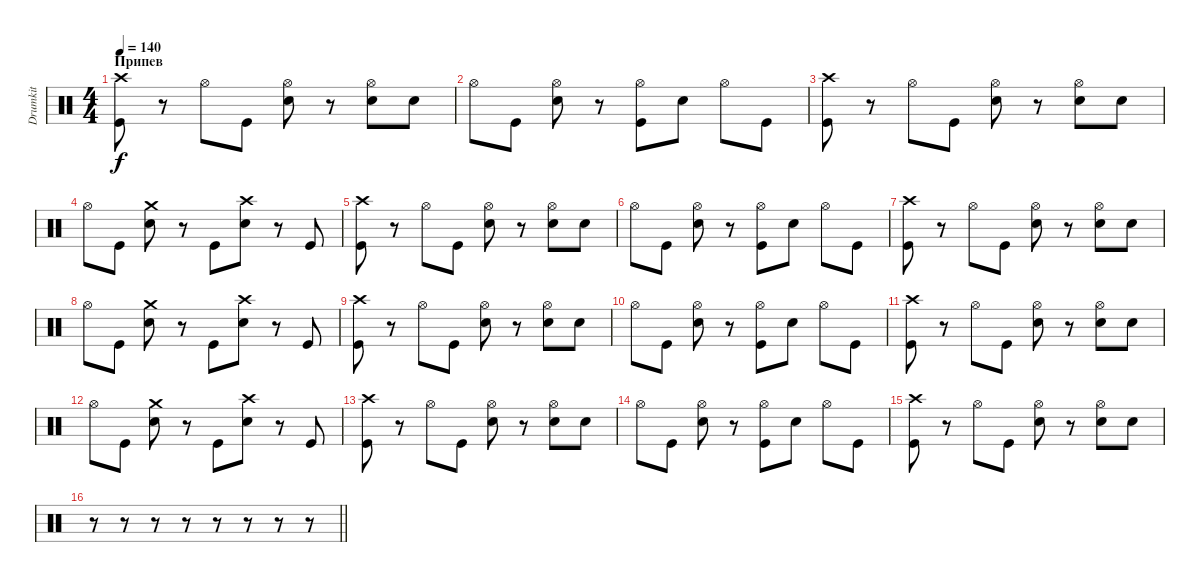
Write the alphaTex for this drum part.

\track ("Drumkit" "Drumkit") {instrument percussion}
\staff {score}
\articulation defaults
\ts (4 4)
\section ("" "Припев")
\tempo 140
\clef neutral
\ks c
("Kick (hit)" "Crash high (hit)").8{dy f} r.8 "Hi-Hat (open)".8 "Kick (hit)".8 ("Snare (hit) 2" "Hi-Hat (open)").8 r.8 ("Snare (hit) 2" "Hi-Hat (open)").8 "Snare (hit) 2".8 |
"Hi-Hat (open)".8 "Kick (hit)".8 ("Hi-Hat (open)" "Snare (hit) 2").8 r.8 ("Hi-Hat (open)" "Kick (hit)").8 "Snare (hit) 2".8 "Hi-Hat (open)".8 "Kick (hit)".8 |
("Kick (hit)" "Crash high (hit)").8 r.8 "Hi-Hat (open)".8 "Kick (hit)".8 ("Snare (hit) 2" "Hi-Hat (open)").8 r.8 ("Snare (hit) 2" "Hi-Hat (open)").8 "Snare (hit) 2".8 |
"Hi-Hat (open)".8 "Kick (hit)".8 ("Crash medium (hit)" "Snare (hit) 2").8 r.8 "Kick (hit)".8 ("Crash high (hit)" "Snare (hit) 2").8 r.8 "Kick (hit)".8 |
("Kick (hit)" "Crash high (hit)").8 r.8 "Hi-Hat (open)".8 "Kick (hit)".8 ("Snare (hit) 2" "Hi-Hat (open)").8 r.8 ("Snare (hit) 2" "Hi-Hat (open)").8 "Snare (hit) 2".8 |
"Hi-Hat (open)".8 "Kick (hit)".8 ("Hi-Hat (open)" "Snare (hit) 2").8 r.8 ("Hi-Hat (open)" "Kick (hit)").8 "Snare (hit) 2".8 "Hi-Hat (open)".8 "Kick (hit)".8 |
("Kick (hit)" "Crash high (hit)").8 r.8 "Hi-Hat (open)".8 "Kick (hit)".8 ("Snare (hit) 2" "Hi-Hat (open)").8 r.8 ("Snare (hit) 2" "Hi-Hat (open)").8 "Snare (hit) 2".8 |
"Hi-Hat (open)".8 "Kick (hit)".8 ("Crash medium (hit)" "Snare (hit) 2").8 r.8 "Kick (hit)".8 ("Crash high (hit)" "Snare (hit) 2").8 r.8 "Kick (hit)".8 |
("Kick (hit)" "Crash high (hit)").8 r.8 "Hi-Hat (open)".8 "Kick (hit)".8 ("Snare (hit) 2" "Hi-Hat (open)").8 r.8 ("Snare (hit) 2" "Hi-Hat (open)").8 "Snare (hit) 2".8 |
"Hi-Hat (open)".8 "Kick (hit)".8 ("Hi-Hat (open)" "Snare (hit) 2").8 r.8 ("Hi-Hat (open)" "Kick (hit)").8 "Snare (hit) 2".8 "Hi-Hat (open)".8 "Kick (hit)".8 |
("Kick (hit)" "Crash high (hit)").8 r.8 "Hi-Hat (open)".8 "Kick (hit)".8 ("Snare (hit) 2" "Hi-Hat (open)").8 r.8 ("Snare (hit) 2" "Hi-Hat (open)").8 "Snare (hit) 2".8 |
"Hi-Hat (open)".8 "Kick (hit)".8 ("Crash medium (hit)" "Snare (hit) 2").8 r.8 "Kick (hit)".8 ("Crash high (hit)" "Snare (hit) 2").8 r.8 "Kick (hit)".8 |
("Kick (hit)" "Crash high (hit)").8 r.8 "Hi-Hat (open)".8 "Kick (hit)".8 ("Snare (hit) 2" "Hi-Hat (open)").8 r.8 ("Snare (hit) 2" "Hi-Hat (open)").8 "Snare (hit) 2".8 |
"Hi-Hat (open)".8 "Kick (hit)".8 ("Hi-Hat (open)" "Snare (hit) 2").8 r.8 ("Hi-Hat (open)" "Kick (hit)").8 "Snare (hit) 2".8 "Hi-Hat (open)".8 "Kick (hit)".8 |
("Kick (hit)" "Crash high (hit)").8 r.8 "Hi-Hat (open)".8 "Kick (hit)".8 ("Snare (hit) 2" "Hi-Hat (open)").8 r.8 ("Snare (hit) 2" "Hi-Hat (open)").8 "Snare (hit) 2".8 |
\barLineRight lightlight
r.8 r.8 r.8 r.8 r.8 r.8 r.8 r.8
